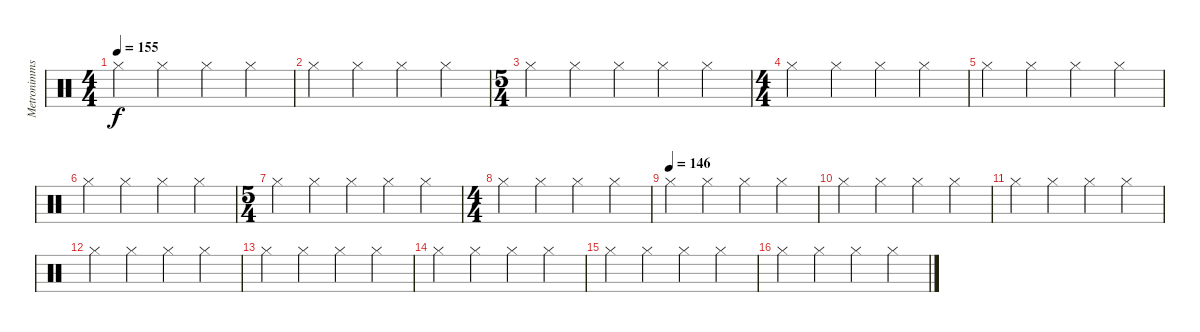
\track ("Metronimms" "Metronimms") {instrument percussion}
\staff {score}
\articulation defaults
\ts (4 4)
\tempo 155
\clef neutral
\ks c "Hi-Hat (closed)".4{dy f} "Hi-Hat (closed)".4 "Hi-Hat (closed)".4 "Hi-Hat (closed)".4
|
"Hi-Hat (closed)".4 "Hi-Hat (closed)".4 "Hi-Hat (closed)".4 "Hi-Hat (closed)".4 |
\ts (5 4)
"Hi-Hat (closed)".4 "Hi-Hat (closed)".4 "Hi-Hat (closed)".4 "Hi-Hat (closed)".4 "Hi-Hat (closed)".4 |
\ts (4 4)
"Hi-Hat (closed)".4 "Hi-Hat (closed)".4 "Hi-Hat (closed)".4 "Hi-Hat (closed)".4 |
"Hi-Hat (closed)".4 "Hi-Hat (closed)".4 "Hi-Hat (closed)".4 "Hi-Hat (closed)".4 |
"Hi-Hat (closed)".4 "Hi-Hat (closed)".4 "Hi-Hat (closed)".4 "Hi-Hat (closed)".4 |
\ts (5 4)
"Hi-Hat (closed)".4 "Hi-Hat (closed)".4 "Hi-Hat (closed)".4 "Hi-Hat (closed)".4 "Hi-Hat (closed)".4 |
\ts (4 4)
"Hi-Hat (closed)".4 "Hi-Hat (closed)".4 "Hi-Hat (closed)".4 "Hi-Hat (closed)".4 |
\tempo (146)
"Hi-Hat (closed)".4 "Hi-Hat (closed)".4 "Hi-Hat (closed)".4 "Hi-Hat (closed)".4 |
"Hi-Hat (closed)".4 "Hi-Hat (closed)".4 "Hi-Hat (closed)".4 "Hi-Hat (closed)".4 |
"Hi-Hat (closed)".4 "Hi-Hat (closed)".4 "Hi-Hat (closed)".4 "Hi-Hat (closed)".4 |
"Hi-Hat (closed)".4 "Hi-Hat (closed)".4 "Hi-Hat (closed)".4 "Hi-Hat (closed)".4 |
"Hi-Hat (closed)".4 "Hi-Hat (closed)".4 "Hi-Hat (closed)".4 "Hi-Hat (closed)".4 |
"Hi-Hat (closed)".4 "Hi-Hat (closed)".4 "Hi-Hat (closed)".4 "Hi-Hat (closed)".4 |
"Hi-Hat (closed)".4 "Hi-Hat (closed)".4 "Hi-Hat (closed)".4 "Hi-Hat (closed)".4 |
"Hi-Hat (closed)".4 "Hi-Hat (closed)".4 "Hi-Hat (closed)".4 "Hi-Hat (closed)".4
